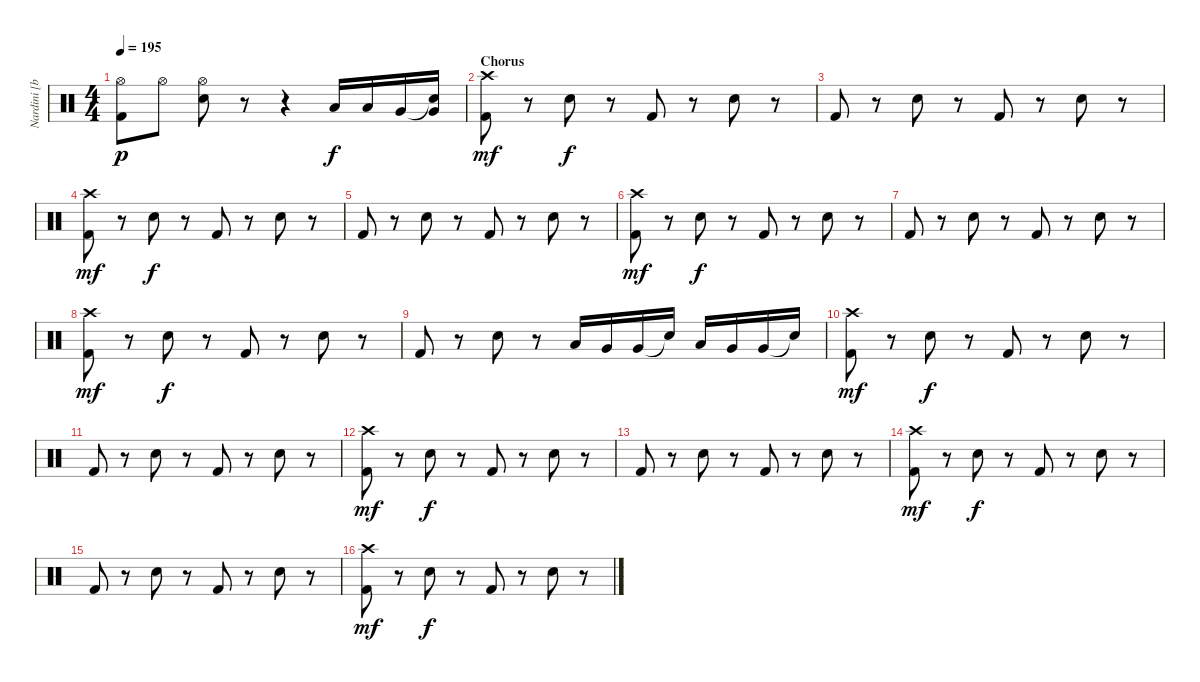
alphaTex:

\track ("Nardini [batteria]" "Nardini [b") {instrument percussion}
\staff {score}
\articulation defaults
\ts (4 4)
\tempo 195
\clef neutral
\ks c
("Hi-Hat (open)" "Kick (hit) 2").8{dy p} "Hi-Hat (open)".8 ("Hi-Hat (open)" "Electric Snare (hit)").8 r.8 r.4 "Low Tom (hit)".16{dy f} "Low Tom (hit)".16 "Very Low Tom (hit)".16 ("Snare (hit)"{t} "Very Low Tom (hit)").16 |
\section ("" "Chorus")
("Crash high (hit)" "Kick (hit) 2").8{dy mf} r.8 "Electric Snare (hit)".8{dy f} r.8 "Kick (hit) 2".8 r.8 "Electric Snare (hit)".8 r.8 |
"Kick (hit) 2".8 r.8 "Electric Snare (hit)".8 r.8 "Kick (hit) 2".8 r.8 "Electric Snare (hit)".8 r.8 |
("Crash high (hit)" "Kick (hit) 2").8{dy mf} r.8 "Electric Snare (hit)".8{dy f} r.8 "Kick (hit) 2".8 r.8 "Electric Snare (hit)".8 r.8 |
"Kick (hit) 2".8 r.8 "Electric Snare (hit)".8 r.8 "Kick (hit) 2".8 r.8 "Electric Snare (hit)".8 r.8 |
("Crash high (hit)" "Kick (hit) 2").8{dy mf} r.8 "Electric Snare (hit)".8{dy f} r.8 "Kick (hit) 2".8 r.8 "Electric Snare (hit)".8 r.8 |
"Kick (hit) 2".8 r.8 "Electric Snare (hit)".8 r.8 "Kick (hit) 2".8 r.8 "Electric Snare (hit)".8 r.8 |
("Crash high (hit)" "Kick (hit) 2").8{dy mf} r.8 "Electric Snare (hit)".8{dy f} r.8 "Kick (hit) 2".8 r.8 "Electric Snare (hit)".8 r.8 |
"Kick (hit) 2".8 r.8 "Electric Snare (hit)".8 r.8 "Low Tom (hit)".16 "Very Low Tom (hit)".16 "Very Low Tom (hit)".16 "Electric Snare (hit)"{t}.16 "Low Tom (hit)".16 "Very Low Tom (hit)".16 "Very Low Tom (hit)".16 "Snare (hit)"{t}.16 |
("Crash high (hit)" "Kick (hit) 2").8{dy mf} r.8 "Electric Snare (hit)".8{dy f} r.8 "Kick (hit) 2".8 r.8 "Electric Snare (hit)".8 r.8 |
"Kick (hit) 2".8 r.8 "Electric Snare (hit)".8 r.8 "Kick (hit) 2".8 r.8 "Electric Snare (hit)".8 r.8 |
("Crash high (hit)" "Kick (hit) 2").8{dy mf} r.8 "Electric Snare (hit)".8{dy f} r.8 "Kick (hit) 2".8 r.8 "Electric Snare (hit)".8 r.8 |
"Kick (hit) 2".8 r.8 "Electric Snare (hit)".8 r.8 "Kick (hit) 2".8 r.8 "Electric Snare (hit)".8 r.8 |
("Crash high (hit)" "Kick (hit) 2").8{dy mf} r.8 "Electric Snare (hit)".8{dy f} r.8 "Kick (hit) 2".8 r.8 "Electric Snare (hit)".8 r.8 |
"Kick (hit) 2".8 r.8 "Electric Snare (hit)".8 r.8 "Kick (hit) 2".8 r.8 "Electric Snare (hit)".8 r.8 |
("Crash high (hit)" "Kick (hit) 2").8{dy mf} r.8 "Electric Snare (hit)".8{dy f} r.8 "Kick (hit) 2".8 r.8 "Electric Snare (hit)".8 r.8
